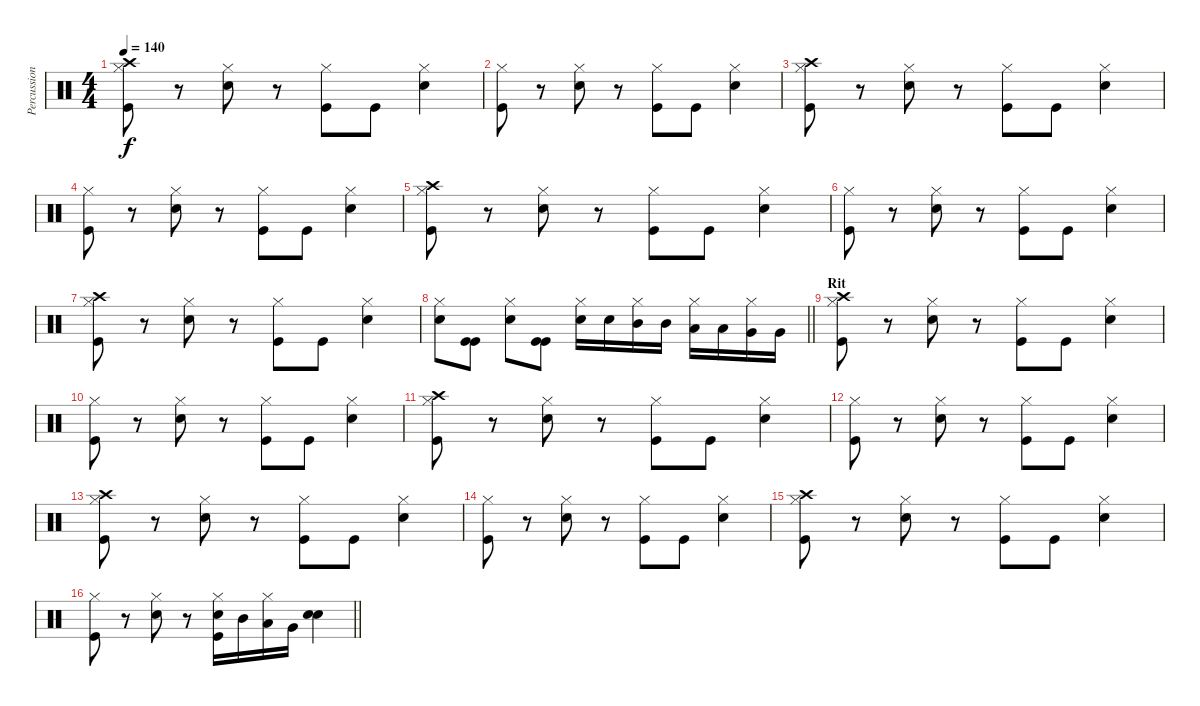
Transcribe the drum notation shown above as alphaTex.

\track ("Percussioni" "Percussion") {instrument percussion}
\staff {score}
\articulation defaults
\ts (4 4)
\tempo 140
\clef neutral
\ks c
("Crash high (hit)" "Hi-Hat (closed)" "Kick (hit)").8{dy f} r.8 ("Hi-Hat (closed)" "Snare (hit) 2").8 r.8 ("Hi-Hat (closed)" "Kick (hit)").8 "Kick (hit)".8 ("Hi-Hat (closed)" "Snare (hit) 2").4 |
("Hi-Hat (closed)" "Kick (hit)").8 r.8 ("Hi-Hat (closed)" "Snare (hit) 2").8 r.8 ("Hi-Hat (closed)" "Kick (hit)").8 "Kick (hit)".8 ("Hi-Hat (closed)" "Snare (hit) 2").4 |
("Crash high (hit)" "Hi-Hat (closed)" "Kick (hit)").8 r.8 ("Hi-Hat (closed)" "Snare (hit) 2").8 r.8 ("Hi-Hat (closed)" "Kick (hit)").8 "Kick (hit)".8 ("Hi-Hat (closed)" "Snare (hit) 2").4 |
("Hi-Hat (closed)" "Kick (hit)").8 r.8 ("Hi-Hat (closed)" "Snare (hit) 2").8 r.8 ("Hi-Hat (closed)" "Kick (hit)").8 "Kick (hit)".8 ("Hi-Hat (closed)" "Snare (hit) 2").4 |
("Crash high (hit)" "Hi-Hat (closed)" "Kick (hit)").8 r.8 ("Hi-Hat (closed)" "Snare (hit) 2").8 r.8 ("Hi-Hat (closed)" "Kick (hit)").8 "Kick (hit)".8 ("Hi-Hat (closed)" "Snare (hit) 2").4 |
("Hi-Hat (closed)" "Kick (hit)").8 r.8 ("Hi-Hat (closed)" "Snare (hit) 2").8 r.8 ("Hi-Hat (closed)" "Kick (hit)").8 "Kick (hit)".8 ("Hi-Hat (closed)" "Snare (hit) 2").4 |
("Crash high (hit)" "Hi-Hat (closed)" "Kick (hit)").8 r.8 ("Hi-Hat (closed)" "Snare (hit) 2").8 r.8 ("Hi-Hat (closed)" "Kick (hit)").8 "Kick (hit)".8 ("Hi-Hat (closed)" "Snare (hit) 2").4 |
\barLineRight lightlight
("Hi-Hat (closed)" "Snare (hit) 2").8 ("Kick (hit)" "Kick (hit)").8 ("Hi-Hat (closed)" "Snare (hit) 2").8 ("Kick (hit)" "Kick (hit)").8 ("Hi-Hat (closed)" "Snare (hit) 2").16 "Snare (hit) 2".16 ("Hi-Hat (closed)" "Mid Tom (hit)").16 "Mid Tom (hit)".16 ("Hi-Hat (closed)" "Low Tom (hit)").16 "Low Tom (hit)".16 ("Hi-Hat (closed)" "Very Low Tom (hit)").16 "Very Low Tom (hit)".16 |
\section ("" "Rit")
("Crash high (hit)" "Hi-Hat (closed)" "Kick (hit)").8 r.8 ("Hi-Hat (closed)" "Snare (hit) 2").8 r.8 ("Hi-Hat (closed)" "Kick (hit)").8 "Kick (hit)".8 ("Hi-Hat (closed)" "Snare (hit) 2").4 |
("Hi-Hat (closed)" "Kick (hit)").8 r.8 ("Hi-Hat (closed)" "Snare (hit) 2").8 r.8 ("Hi-Hat (closed)" "Kick (hit)").8 "Kick (hit)".8 ("Hi-Hat (closed)" "Snare (hit) 2").4 |
("Crash high (hit)" "Hi-Hat (closed)" "Kick (hit)").8 r.8 ("Hi-Hat (closed)" "Snare (hit) 2").8 r.8 ("Hi-Hat (closed)" "Kick (hit)").8 "Kick (hit)".8 ("Hi-Hat (closed)" "Snare (hit) 2").4 |
("Hi-Hat (closed)" "Kick (hit)").8 r.8 ("Hi-Hat (closed)" "Snare (hit) 2").8 r.8 ("Hi-Hat (closed)" "Kick (hit)").8 "Kick (hit)".8 ("Hi-Hat (closed)" "Snare (hit) 2").4 |
("Crash high (hit)" "Hi-Hat (closed)" "Kick (hit)").8 r.8 ("Hi-Hat (closed)" "Snare (hit) 2").8 r.8 ("Hi-Hat (closed)" "Kick (hit)").8 "Kick (hit)".8 ("Hi-Hat (closed)" "Snare (hit) 2").4 |
("Hi-Hat (closed)" "Kick (hit)").8 r.8 ("Hi-Hat (closed)" "Snare (hit) 2").8 r.8 ("Hi-Hat (closed)" "Kick (hit)").8 "Kick (hit)".8 ("Hi-Hat (closed)" "Snare (hit) 2").4 |
("Crash high (hit)" "Hi-Hat (closed)" "Kick (hit)").8 r.8 ("Hi-Hat (closed)" "Snare (hit) 2").8 r.8 ("Hi-Hat (closed)" "Kick (hit)").8 "Kick (hit)".8 ("Hi-Hat (closed)" "Snare (hit) 2").4 |
\barLineRight lightlight
("Hi-Hat (closed)" "Kick (hit)").8 r.8 ("Hi-Hat (closed)" "Snare (hit) 2").8 r.8 ("Hi-Hat (closed)" "Snare (hit) 2" "Kick (hit)").16 "Mid Tom (hit)".16 ("Hi-Hat (closed)" "Low Tom (hit)").16 "Very Low Tom (hit)".16 ("Snare (hit) 2" "Snare (hit) 2").4
